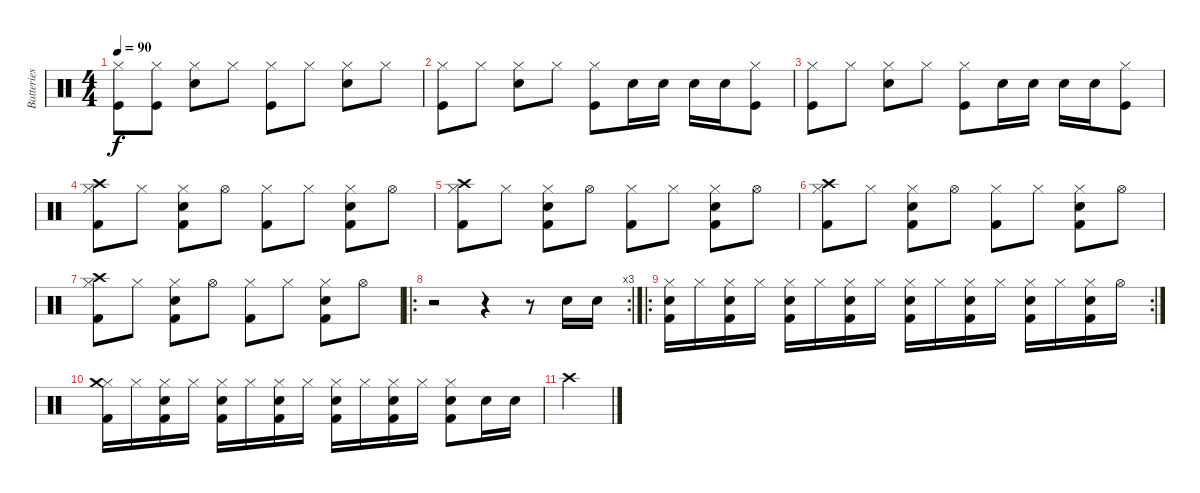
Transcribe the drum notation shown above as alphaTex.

\track ("Batteries" "Batteries") {instrument percussion}
\staff {score}
\articulation defaults
\ts (4 4)
\tempo 90
\clef neutral
\ks c
("Hi-Hat (closed)" "Kick (hit)").8{dy f} ("Hi-Hat (closed)" "Kick (hit)").8 ("Hi-Hat (closed)" "Snare (hit) 2").8 "Hi-Hat (closed)".8 ("Hi-Hat (closed)" "Kick (hit)").8 "Hi-Hat (closed)".8 ("Hi-Hat (closed)" "Snare (hit) 2").8 "Hi-Hat (closed)".8 |
("Hi-Hat (closed)" "Kick (hit)").8 "Hi-Hat (closed)".8 ("Hi-Hat (closed)" "Snare (hit) 2").8 "Hi-Hat (closed)".8 ("Hi-Hat (closed)" "Kick (hit)").8 "Snare (hit) 2".16 "Snare (hit) 2".16 "Snare (hit) 2".16 "Snare (hit) 2".16 ("Hi-Hat (closed)" "Kick (hit)").8 |
("Hi-Hat (closed)" "Kick (hit)").8 "Hi-Hat (closed)".8 ("Hi-Hat (closed)" "Snare (hit) 2").8 "Hi-Hat (closed)".8 ("Hi-Hat (closed)" "Kick (hit)").8 "Snare (hit) 2".16 "Snare (hit) 2".16 "Snare (hit) 2".16 "Snare (hit) 2".16 ("Hi-Hat (closed)" "Kick (hit)").8 |
("Crash high (hit)" "Hi-Hat (closed)" "Kick (hit) 2").8 "Hi-Hat (closed)".8 ("Hi-Hat (closed)" "Snare (hit) 2" "Kick (hit) 2").8 "Hi-Hat (open)".8 ("Hi-Hat (closed)" "Kick (hit) 2").8 "Hi-Hat (closed)".8 ("Hi-Hat (closed)" "Snare (hit) 2" "Kick (hit) 2").8 "Hi-Hat (open)".8 |
("Crash high (hit)" "Hi-Hat (closed)" "Kick (hit) 2").8 "Hi-Hat (closed)".8 ("Hi-Hat (closed)" "Snare (hit) 2" "Kick (hit) 2").8 "Hi-Hat (open)".8 ("Hi-Hat (closed)" "Kick (hit) 2").8 "Hi-Hat (closed)".8 ("Hi-Hat (closed)" "Snare (hit) 2" "Kick (hit) 2").8 "Hi-Hat (open)".8 |
("Crash high (hit)" "Hi-Hat (closed)" "Kick (hit) 2").8 "Hi-Hat (closed)".8 ("Hi-Hat (closed)" "Snare (hit) 2" "Kick (hit) 2").8 "Hi-Hat (open)".8 ("Hi-Hat (closed)" "Kick (hit) 2").8 "Hi-Hat (closed)".8 ("Hi-Hat (closed)" "Snare (hit) 2" "Kick (hit) 2").8 "Hi-Hat (open)".8 |
("Crash high (hit)" "Hi-Hat (closed)" "Kick (hit) 2").8 "Hi-Hat (closed)".8 ("Hi-Hat (closed)" "Snare (hit) 2" "Kick (hit) 2").8 "Hi-Hat (open)".8 ("Hi-Hat (closed)" "Kick (hit) 2").8 "Hi-Hat (closed)".8 ("Hi-Hat (closed)" "Snare (hit) 2" "Kick (hit) 2").8 "Hi-Hat (open)".8 |
\ro
\rc 3
r.2 r.4 r.8 "Snare (hit) 2".16 "Snare (hit) 2".16 |
\ro
\rc 2
("Hi-Hat (closed)" "Electric Snare (hit)" "Kick (hit) 2").16 "Hi-Hat (closed)".16 ("Hi-Hat (closed)" "Snare (hit) 2" "Kick (hit) 2").16 "Hi-Hat (closed)".16 ("Hi-Hat (closed)" "Electric Snare (hit)" "Kick (hit) 2").16 "Hi-Hat (closed)".16 ("Hi-Hat (closed)" "Snare (hit) 2" "Kick (hit) 2").16 "Hi-Hat (closed)".16 ("Hi-Hat (closed)" "Electric Snare (hit)" "Kick (hit) 2").16 "Hi-Hat (closed)".16 ("Hi-Hat (closed)" "Snare (hit) 2" "Kick (hit) 2").16 "Hi-Hat (closed)".16 ("Hi-Hat (closed)" "Electric Snare (hit)" "Kick (hit) 2").16 "Hi-Hat (closed)".16 ("Hi-Hat (closed)" "Snare (hit) 2" "Kick (hit) 2").16 "Hi-Hat (open)".16 |
("Hi-Hat (closed)" "Crash medium (hit)" "Kick (hit) 2").16 "Hi-Hat (closed)".16 ("Hi-Hat (closed)" "Snare (hit) 2" "Kick (hit) 2").16 "Hi-Hat (closed)".16 ("Hi-Hat (closed)" "Electric Snare (hit)" "Kick (hit) 2").16 "Hi-Hat (closed)".16 ("Hi-Hat (closed)" "Snare (hit) 2" "Kick (hit) 2").16 "Hi-Hat (closed)".16 ("Hi-Hat (closed)" "Electric Snare (hit)" "Kick (hit) 2").16 "Hi-Hat (closed)".16 ("Hi-Hat (closed)" "Snare (hit) 2" "Kick (hit) 2").16 "Hi-Hat (closed)".16 ("Hi-Hat (closed)" "Electric Snare (hit)" "Kick (hit) 2").8 "Snare (hit) 2".16 "Snare (hit) 2".16 |
"Crash high (hit)".2
